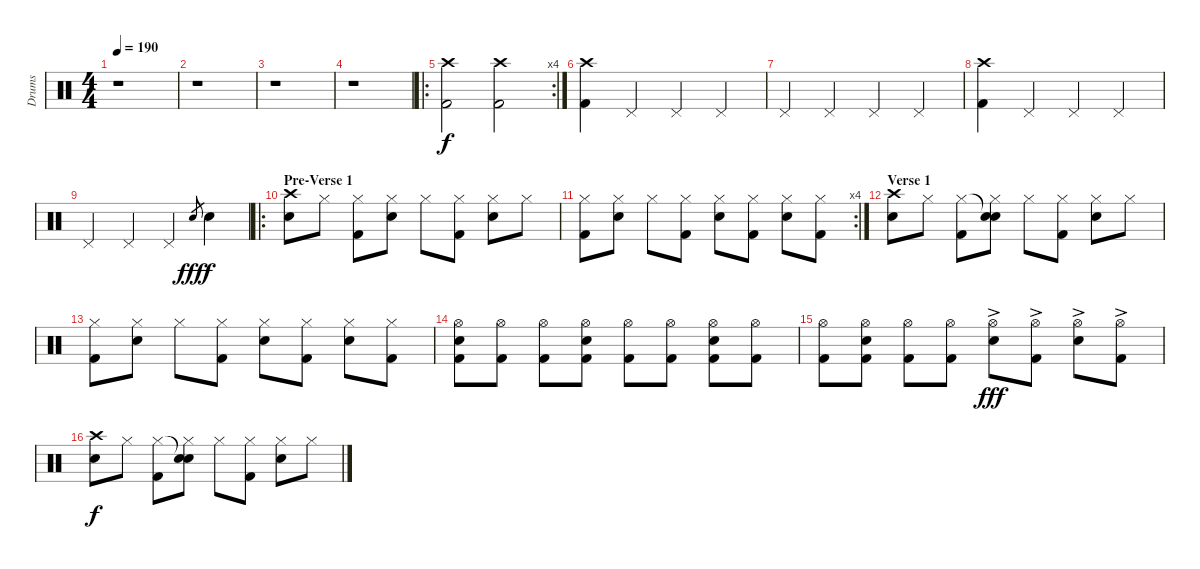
\track ("Drums" "Drums") {instrument percussion}
\staff {score}
\articulation defaults
\ts (4 4)
\tempo 190
\clef neutral
\ks c
r.1{dy f} |
r.1 |
r.1 |
r.1 |
\ro
\rc 4
("Crash high (hit)" "Kick (hit) 2").2 ("Crash high (hit)" "Kick (hit) 2").2 |
("Crash high (hit)" "Kick (hit) 2").4 "Pedal Hi-Hat (hit)".4 "Pedal Hi-Hat (hit)".4 "Pedal Hi-Hat (hit)".4 |
"Pedal Hi-Hat (hit)".4 "Pedal Hi-Hat (hit)".4 "Pedal Hi-Hat (hit)".4 "Pedal Hi-Hat (hit)".4 |
("Crash high (hit)" "Kick (hit) 2").4 "Pedal Hi-Hat (hit)".4 "Pedal Hi-Hat (hit)".4 "Pedal Hi-Hat (hit)".4 |
"Pedal Hi-Hat (hit)".4 "Pedal Hi-Hat (hit)".4 "Pedal Hi-Hat (hit)".4 "Electric Snare (hit)".8{gr dy fff} "Electric Snare (hit)".4{dy f} |
\ro
\section ("" "Pre-Verse 1")
("Crash high (hit)" "Electric Snare (hit)").8 "Hi-Hat (closed)".8 ("Hi-Hat (closed)" "Kick (hit) 2").8 ("Hi-Hat (closed)" "Electric Snare (hit)").8 "Hi-Hat (closed)".8 ("Hi-Hat (closed)" "Kick (hit) 2").8 ("Hi-Hat (closed)" "Electric Snare (hit)").8 "Hi-Hat (closed)".8 |
\rc 4
("Hi-Hat (closed)" "Kick (hit) 2").8 ("Hi-Hat (closed)" "Electric Snare (hit)").8 "Hi-Hat (closed)".8 ("Hi-Hat (closed)" "Kick (hit) 2").8 ("Hi-Hat (closed)" "Electric Snare (hit)").8 ("Hi-Hat (closed)" "Kick (hit) 2").8 ("Hi-Hat (closed)" "Electric Snare (hit)").8 ("Hi-Hat (closed)" "Kick (hit) 2").8 |
\section ("" "Verse 1")
("Crash high (hit)" "Electric Snare (hit)").8 "Hi-Hat (closed)".8 ("Hi-Hat (closed)" "Kick (hit) 2").8 ("Snare (hit)"{t} "Hi-Hat (closed)" "Electric Snare (hit)").8 "Hi-Hat (closed)".8 ("Hi-Hat (closed)" "Kick (hit) 2").8 ("Hi-Hat (closed)" "Electric Snare (hit)").8 "Hi-Hat (closed)".8 |
("Hi-Hat (closed)" "Kick (hit) 2").8 ("Hi-Hat (closed)" "Electric Snare (hit)").8 "Hi-Hat (closed)".8 ("Hi-Hat (closed)" "Kick (hit) 2").8 ("Hi-Hat (closed)" "Electric Snare (hit)").8 ("Hi-Hat (closed)" "Kick (hit) 2").8 ("Hi-Hat (closed)" "Electric Snare (hit)").8 ("Hi-Hat (closed)" "Kick (hit) 2").8 |
("Hi-Hat (open)" "Electric Snare (hit)" "Kick (hit) 2").8 ("Hi-Hat (open)" "Kick (hit) 2").8 ("Hi-Hat (open)" "Kick (hit) 2").8 ("Hi-Hat (open)" "Electric Snare (hit)" "Kick (hit) 2").8 ("Hi-Hat (open)" "Kick (hit) 2").8 ("Hi-Hat (open)" "Kick (hit) 2").8 ("Hi-Hat (open)" "Electric Snare (hit)" "Kick (hit) 2").8 ("Hi-Hat (open)" "Kick (hit) 2").8 |
("Hi-Hat (open)" "Kick (hit) 2").8 ("Hi-Hat (open)" "Electric Snare (hit)" "Kick (hit) 2").8 ("Hi-Hat (open)" "Kick (hit) 2").8 ("Hi-Hat (open)" "Kick (hit) 2").8 ("Hi-Hat (open)" "Electric Snare (hit)"{ac}).8{dy fff} ("Hi-Hat (open)" "Kick (hit) 2"{ac}).8 ("Hi-Hat (open)" "Electric Snare (hit)"{ac}).8 ("Hi-Hat (open)" "Kick (hit) 2"{ac}).8 |
("Crash high (hit)" "Electric Snare (hit)").8{dy f} "Hi-Hat (closed)".8 ("Hi-Hat (closed)" "Kick (hit) 2").8 ("Snare (hit)"{t} "Hi-Hat (closed)" "Electric Snare (hit)").8 "Hi-Hat (closed)".8 ("Hi-Hat (closed)" "Kick (hit) 2").8 ("Hi-Hat (closed)" "Electric Snare (hit)").8 "Hi-Hat (closed)".8
